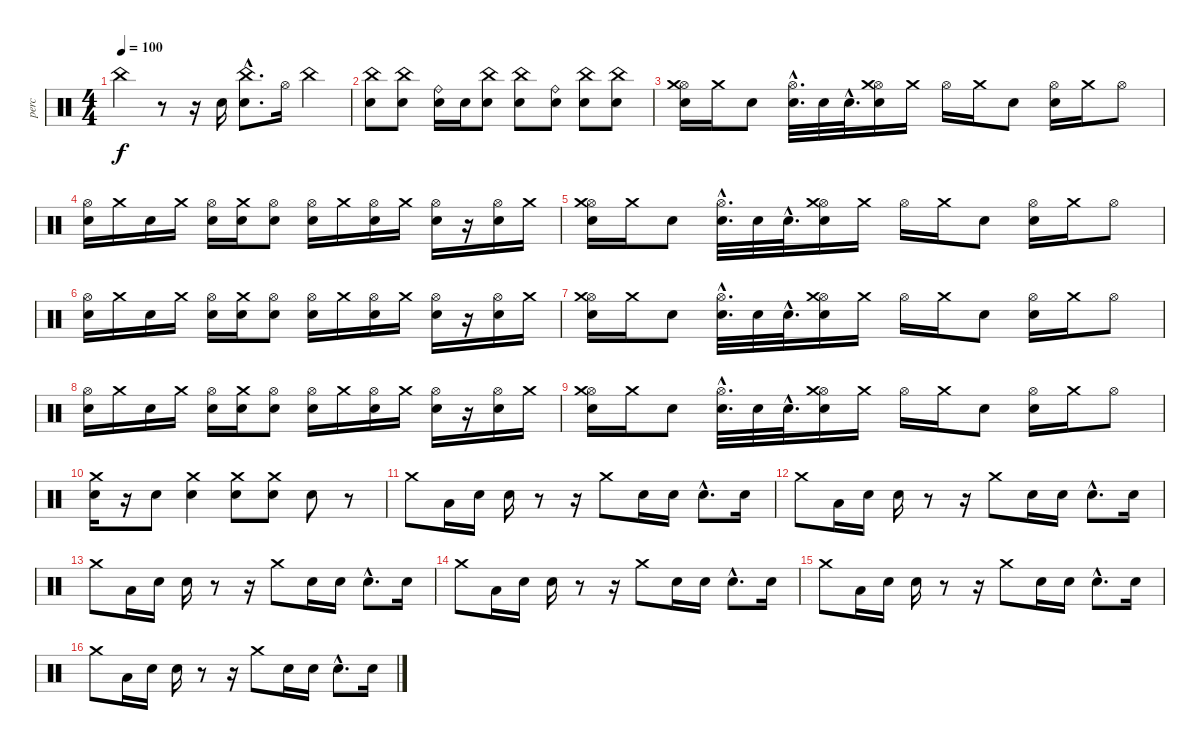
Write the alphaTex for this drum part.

\track ("perc" "perc") {instrument percussion}
\staff {score}
\articulation defaults
\ts (4 4)
\tempo 100
\clef neutral
\ks c "China (hit)".4{dy f}
r.8 r.16 "Hand Clap (hit)".16 ("Snare (hit) 2"{hac} "China (hit)"{hac}).8{d} "Hi-Hat (open)".16 "China (hit)".4 |
("Electric Snare (hit)" "China (hit)").8 ("Electric Snare (hit)" "China (hit)").8 ("Electric Snare (hit)" "Ride (bell)").16 "Electric Snare (hit)".16 ("Snare (hit) 2" "China (hit)").8 ("Snare (hit) 2" "China (hit)").8 ("Snare (hit) 2" "Ride (bell)").8 ("Snare (hit) 2" "China (hit)").8 ("Snare (hit) 2" "China (hit)").8 |
("Snare (hit) 2" "Hi-Hat (open)" "Crash medium (hit)").16 "Crash medium (hit)".16 "Snare (hit) 2".8 ("Snare (hit) 2"{hac} "Hi-Hat (open)"{hac}).32{d} "Snare (hit) 2".32 "Snare (hit) 2"{hac}.32{d} ("Snare (hit) 2" "Hi-Hat (open)" "Crash medium (hit)").16 "Crash medium (hit)".16 "Hi-Hat (open)".16 "Crash medium (hit)".16 "Snare (hit) 2".8 ("Snare (hit) 2" "Hi-Hat (open)").16 "Crash medium (hit)".16 "Hi-Hat (open)".8 |
("Snare (hit) 2" "Hi-Hat (open)").16 "Crash medium (hit)".16 "Snare (hit) 2".16 "Crash medium (hit)".16 ("Snare (hit) 2" "Hi-Hat (open)").16 ("Snare (hit) 2" "Crash medium (hit)").16 ("Snare (hit) 2" "Hi-Hat (open)").8 ("Snare (hit) 2" "Hi-Hat (open)").16 "Crash medium (hit)".16 ("Snare (hit) 2" "Hi-Hat (open)").16 "Crash medium (hit)".16 ("Snare (hit) 2" "Hi-Hat (open)").16 r.16 ("Snare (hit) 2" "Hi-Hat (open)").16 "Crash medium (hit)".16 |
("Snare (hit) 2" "Hi-Hat (open)" "Crash medium (hit)").16 "Crash medium (hit)".16 "Snare (hit) 2".8 ("Snare (hit) 2"{hac} "Hi-Hat (open)"{hac}).32{d} "Snare (hit) 2".32 "Snare (hit) 2"{hac}.32{d} ("Snare (hit) 2" "Hi-Hat (open)" "Crash medium (hit)").16 "Crash medium (hit)".16 "Hi-Hat (open)".16 "Crash medium (hit)".16 "Snare (hit) 2".8 ("Snare (hit) 2" "Hi-Hat (open)").16 "Crash medium (hit)".16 "Hi-Hat (open)".8 |
("Snare (hit) 2" "Hi-Hat (open)").16 "Crash medium (hit)".16 "Snare (hit) 2".16 "Crash medium (hit)".16 ("Snare (hit) 2" "Hi-Hat (open)").16 ("Snare (hit) 2" "Crash medium (hit)").16 ("Snare (hit) 2" "Hi-Hat (open)").8 ("Snare (hit) 2" "Hi-Hat (open)").16 "Crash medium (hit)".16 ("Snare (hit) 2" "Hi-Hat (open)").16 "Crash medium (hit)".16 ("Snare (hit) 2" "Hi-Hat (open)").16 r.16 ("Snare (hit) 2" "Hi-Hat (open)").16 "Crash medium (hit)".16 |
("Snare (hit) 2" "Hi-Hat (open)" "Crash medium (hit)").16 "Crash medium (hit)".16 "Snare (hit) 2".8 ("Snare (hit) 2"{hac} "Hi-Hat (open)"{hac}).32{d} "Snare (hit) 2".32 "Snare (hit) 2"{hac}.32{d} ("Snare (hit) 2" "Hi-Hat (open)" "Crash medium (hit)").16 "Crash medium (hit)".16 "Hi-Hat (open)".16 "Crash medium (hit)".16 "Snare (hit) 2".8 ("Snare (hit) 2" "Hi-Hat (open)").16 "Crash medium (hit)".16 "Hi-Hat (open)".8 |
("Snare (hit) 2" "Hi-Hat (open)").16 "Crash medium (hit)".16 "Snare (hit) 2".16 "Crash medium (hit)".16 ("Snare (hit) 2" "Hi-Hat (open)").16 ("Snare (hit) 2" "Crash medium (hit)").16 ("Snare (hit) 2" "Hi-Hat (open)").8 ("Snare (hit) 2" "Hi-Hat (open)").16 "Crash medium (hit)".16 ("Snare (hit) 2" "Hi-Hat (open)").16 "Crash medium (hit)".16 ("Snare (hit) 2" "Hi-Hat (open)").16 r.16 ("Snare (hit) 2" "Hi-Hat (open)").16 "Crash medium (hit)".16 |
("Snare (hit) 2" "Hi-Hat (open)" "Crash medium (hit)").16 "Crash medium (hit)".16 "Snare (hit) 2".8 ("Snare (hit) 2"{hac} "Hi-Hat (open)"{hac}).32{d} "Snare (hit) 2".32 "Snare (hit) 2"{hac}.32{d} ("Snare (hit) 2" "Hi-Hat (open)" "Crash medium (hit)").16 "Crash medium (hit)".16 "Hi-Hat (open)".16 "Crash medium (hit)".16 "Snare (hit) 2".8 ("Snare (hit) 2" "Hi-Hat (open)").16 "Crash medium (hit)".16 "Hi-Hat (open)".8 |
("Snare (hit) 2" "Crash medium (hit)").16 r.16 "Snare (hit) 2".8 ("Snare (hit) 2" "Crash medium (hit)").4 ("Snare (hit) 2" "Crash medium (hit)").8 ("Snare (hit) 2" "Crash medium (hit)").8 "Snare (hit) 2".8 r.8 |
"Crash medium (hit)".8 "Low Floor Tom (hit)".16 "Electric Snare (hit)".16 "Snare (hit) 2".16 r.8 r.16 "Crash medium (hit)".8 "Electric Snare (hit)".16 "Electric Snare (hit)".16 "Snare (hit) 2"{hac}.8{d} "Electric Snare (hit)".16 |
"Crash medium (hit)".8 "Low Floor Tom (hit)".16 "Electric Snare (hit)".16 "Snare (hit) 2".16 r.8 r.16 "Crash medium (hit)".8 "Electric Snare (hit)".16 "Electric Snare (hit)".16 "Snare (hit) 2"{hac}.8{d} "Electric Snare (hit)".16 |
"Crash medium (hit)".8 "Low Floor Tom (hit)".16 "Electric Snare (hit)".16 "Snare (hit) 2".16 r.8 r.16 "Crash medium (hit)".8 "Electric Snare (hit)".16 "Electric Snare (hit)".16 "Snare (hit) 2"{hac}.8{d} "Electric Snare (hit)".16 |
"Crash medium (hit)".8 "Low Floor Tom (hit)".16 "Electric Snare (hit)".16 "Snare (hit) 2".16 r.8 r.16 "Crash medium (hit)".8 "Electric Snare (hit)".16 "Electric Snare (hit)".16 "Snare (hit) 2"{hac}.8{d} "Electric Snare (hit)".16 |
"Crash medium (hit)".8 "Low Floor Tom (hit)".16 "Electric Snare (hit)".16 "Snare (hit) 2".16 r.8 r.16 "Crash medium (hit)".8 "Electric Snare (hit)".16 "Electric Snare (hit)".16 "Snare (hit) 2"{hac}.8{d} "Electric Snare (hit)".16 |
"Crash medium (hit)".8 "Low Floor Tom (hit)".16 "Electric Snare (hit)".16 "Snare (hit) 2".16 r.8 r.16 "Crash medium (hit)".8 "Electric Snare (hit)".16 "Electric Snare (hit)".16 "Snare (hit) 2"{hac}.8{d} "Electric Snare (hit)".16
